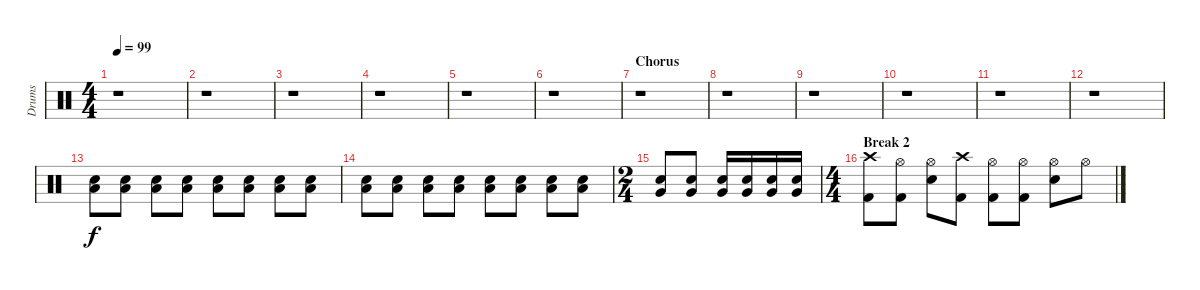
\track ("Drums " "Drums ") {instrument percussion}
\staff {score}
\articulation defaults
\ts (4 4)
\tempo 99
\clef neutral
\ks c
r.1{dy f} |
r.1 |
r.1 |
r.1 |
r.1 |
r.1 |
\section ("" "Chorus")
r.1 |
r.1 |
r.1 |
r.1 |
r.1 |
r.1{volume 3} |
("Snare (hit) 2" "Low Tom (hit)").8{volume 13} ("Snare (hit) 2" "Low Tom (hit)").8 ("Snare (hit) 2" "Low Tom (hit)").8 ("Snare (hit) 2" "Low Tom (hit)").8 ("Snare (hit) 2" "Low Tom (hit)").8 ("Snare (hit) 2" "Low Tom (hit)").8 ("Snare (hit) 2" "Low Tom (hit)").8 ("Snare (hit) 2" "Low Tom (hit)").8 |
("Snare (hit) 2" "Low Tom (hit)").8 ("Snare (hit) 2" "Low Tom (hit)").8 ("Snare (hit) 2" "Low Tom (hit)").8 ("Snare (hit) 2" "Low Tom (hit)").8 ("Snare (hit) 2" "Low Tom (hit)").8 ("Snare (hit) 2" "Low Tom (hit)").8 ("Snare (hit) 2" "Low Tom (hit)").8 ("Snare (hit) 2" "Low Tom (hit)").8 |
\ts (2 4)
("Snare (hit) 2" "Very Low Tom (hit)").8 ("Snare (hit) 2" "Very Low Tom (hit)").8 ("Snare (hit) 2" "Very Low Tom (hit)").16 ("Snare (hit) 2" "Very Low Tom (hit)").16 ("Snare (hit) 2" "Very Low Tom (hit)").16 ("Snare (hit) 2" "Very Low Tom (hit)").16 |
\ts (4 4)
\section ("" "Break 2")
("Crash high (hit)" "Kick (hit) 2").8 ("Hi-Hat (open)" "Kick (hit) 2").8 ("Hi-Hat (open)" "Snare (hit) 2").8 ("Crash high (hit)" "Kick (hit) 2").8 ("Hi-Hat (open)" "Kick (hit) 2").8 ("Hi-Hat (open)" "Kick (hit) 2").8 ("Hi-Hat (open)" "Snare (hit) 2").8 "Hi-Hat (open)".8
